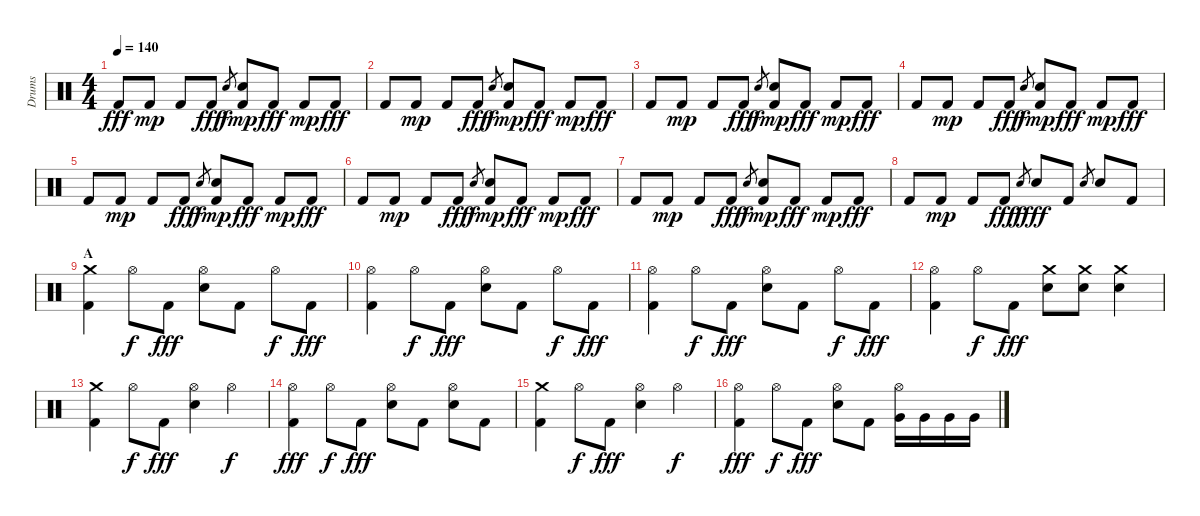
\track ("Drums" "Drums") {instrument percussion}
\staff {score}
\articulation defaults
\ts (4 4)
\tempo 140
\clef neutral
\ks c "Kick (hit) 2".8{dy fff} "Kick (hit) 2".8{dy mp} "Kick (hit) 2".8 "Kick (hit) 2".8{dy fff} "Electric Snare (hit)".8{gr dy f}
("Electric Snare (hit)" "Kick (hit) 2").8{dy mp} "Kick (hit) 2".8{dy fff} "Kick (hit) 2".8{dy mp} "Kick (hit) 2".8{dy fff} |
"Kick (hit) 2".8 "Kick (hit) 2".8{dy mp} "Kick (hit) 2".8 "Kick (hit) 2".8{dy fff} "Electric Snare (hit)".8{gr dy f} ("Electric Snare (hit)" "Kick (hit) 2").8{dy mp} "Kick (hit) 2".8{dy fff} "Kick (hit) 2".8{dy mp} "Kick (hit) 2".8{dy fff} |
"Kick (hit) 2".8 "Kick (hit) 2".8{dy mp} "Kick (hit) 2".8 "Kick (hit) 2".8{dy fff} "Electric Snare (hit)".8{gr dy f} ("Electric Snare (hit)" "Kick (hit) 2").8{dy mp} "Kick (hit) 2".8{dy fff} "Kick (hit) 2".8{dy mp} "Kick (hit) 2".8{dy fff} |
"Kick (hit) 2".8 "Kick (hit) 2".8{dy mp} "Kick (hit) 2".8 "Kick (hit) 2".8{dy fff} "Electric Snare (hit)".8{gr dy f} ("Electric Snare (hit)" "Kick (hit) 2").8{dy mp} "Kick (hit) 2".8{dy fff} "Kick (hit) 2".8{dy mp} "Kick (hit) 2".8{dy fff} |
"Kick (hit) 2".8 "Kick (hit) 2".8{dy mp} "Kick (hit) 2".8 "Kick (hit) 2".8{dy fff} "Electric Snare (hit)".8{gr dy f} ("Electric Snare (hit)" "Kick (hit) 2").8{dy mp} "Kick (hit) 2".8{dy fff} "Kick (hit) 2".8{dy mp} "Kick (hit) 2".8{dy fff} |
"Kick (hit) 2".8 "Kick (hit) 2".8{dy mp} "Kick (hit) 2".8 "Kick (hit) 2".8{dy fff} "Electric Snare (hit)".8{gr dy f} ("Electric Snare (hit)" "Kick (hit) 2").8{dy mp} "Kick (hit) 2".8{dy fff} "Kick (hit) 2".8{dy mp} "Kick (hit) 2".8{dy fff} |
"Kick (hit) 2".8 "Kick (hit) 2".8{dy mp} "Kick (hit) 2".8 "Kick (hit) 2".8{dy fff} "Electric Snare (hit)".8{gr dy f} ("Electric Snare (hit)" "Kick (hit) 2").8{dy mp} "Kick (hit) 2".8{dy fff} "Kick (hit) 2".8{dy mp} "Kick (hit) 2".8{dy fff} |
"Kick (hit) 2".8 "Kick (hit) 2".8{dy mp} "Kick (hit) 2".8 "Kick (hit) 2".8{dy fff} "Electric Snare (hit)".8{gr dy f} "Electric Snare (hit)".8{dy fff} "Kick (hit) 2".8 "Electric Snare (hit)".8{gr} "Electric Snare (hit)".8 "Kick (hit) 2".8 |
\section ("" "A")
("Crash medium (hit)" "Kick (hit) 2").4 "Hi-Hat (open)".8{dy f} "Kick (hit) 2".8{dy fff} ("Hi-Hat (open)" "Electric Snare (hit)").8 "Kick (hit) 2".8 "Hi-Hat (open)".8{dy f} "Kick (hit) 2".8{dy fff} |
("Hi-Hat (open)" "Kick (hit) 2").4 "Hi-Hat (open)".8{dy f} "Kick (hit) 2".8{dy fff} ("Hi-Hat (open)" "Electric Snare (hit)").8 "Kick (hit) 2".8 "Hi-Hat (open)".8{dy f} "Kick (hit) 2".8{dy fff} |
("Hi-Hat (open)" "Kick (hit) 2").4 "Hi-Hat (open)".8{dy f} "Kick (hit) 2".8{dy fff} ("Hi-Hat (open)" "Electric Snare (hit)").8 "Kick (hit) 2".8 "Hi-Hat (open)".8{dy f} "Kick (hit) 2".8{dy fff} |
("Hi-Hat (open)" "Kick (hit) 2").4 "Hi-Hat (open)".8{dy f} "Kick (hit) 2".8{dy fff} ("Crash medium (hit)" "Electric Snare (hit)").8 ("Crash medium (hit)" "Electric Snare (hit)").8 ("Crash medium (hit)" "Electric Snare (hit)").4 |
("Crash medium (hit)" "Kick (hit) 2").4 "Hi-Hat (open)".8{dy f} "Kick (hit) 2".8{dy fff} ("Hi-Hat (open)" "Electric Snare (hit)").4 "Hi-Hat (open)".4{dy f} |
("Hi-Hat (open)" "Kick (hit) 2").4{dy fff} "Hi-Hat (open)".8{dy f} "Kick (hit) 2".8{dy fff} ("Hi-Hat (open)" "Electric Snare (hit)").8 "Kick (hit) 2".8 ("Hi-Hat (open)" "Electric Snare (hit)").8 "Kick (hit) 2".8 |
("Crash medium (hit)" "Kick (hit) 2").4 "Hi-Hat (open)".8{dy f} "Kick (hit) 2".8{dy fff} ("Hi-Hat (open)" "Electric Snare (hit)").4 "Hi-Hat (open)".4{dy f} |
("Hi-Hat (open)" "Kick (hit) 2").4{dy fff} "Hi-Hat (open)".8{dy f} "Kick (hit) 2".8{dy fff} ("Hi-Hat (open)" "Electric Snare (hit)").8 "Kick (hit) 2".8 ("Hi-Hat (open)" "Very Low Tom (hit)").16 "Very Low Tom (hit)".16 "Very Low Tom (hit)".16 "Very Low Tom (hit)".16
